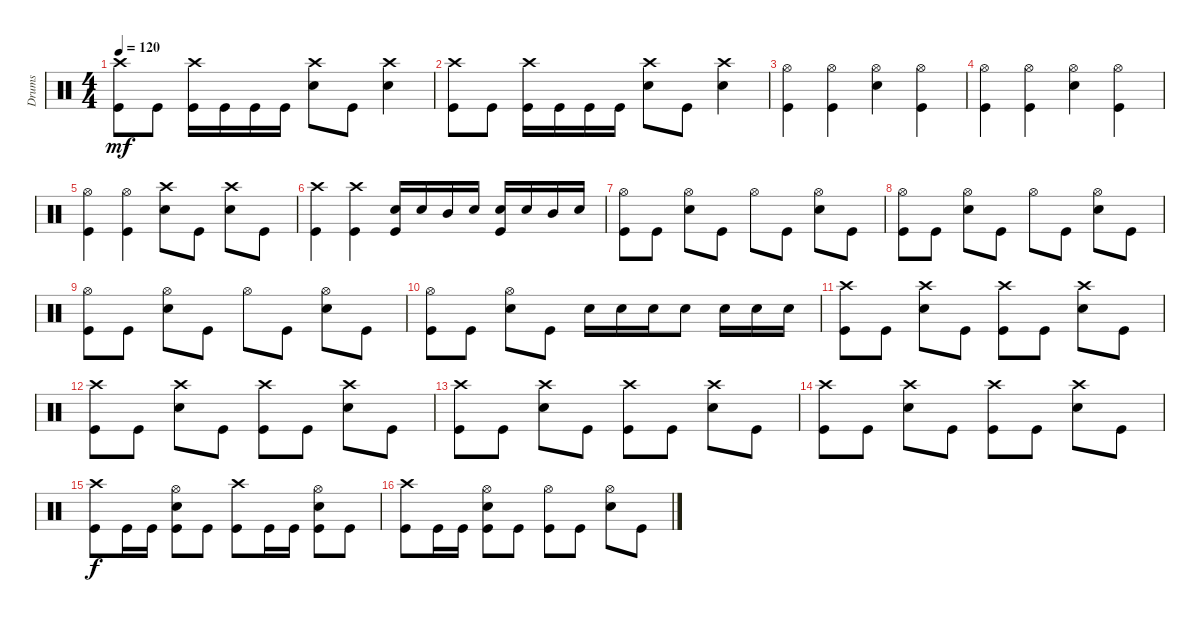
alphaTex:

\track ("Drums" "Drums") {instrument percussion}
\staff {score}
\articulation defaults
\ts (4 4)
\tempo 120
\clef neutral
\ks c
("Crash high (hit)" "Kick (hit)").8{dy mf} "Kick (hit)".8 ("Kick (hit)" "Crash high (hit)").16 "Kick (hit)".16 "Kick (hit)".16 "Kick (hit)".16 ("Snare (hit) 2" "Crash high (hit)").8 "Kick (hit)".8 ("Crash high (hit)" "Snare (hit) 2").4 |
("Crash high (hit)" "Kick (hit)").8 "Kick (hit)".8 ("Kick (hit)" "Crash high (hit)").16 "Kick (hit)".16 "Kick (hit)".16 "Kick (hit)".16 ("Snare (hit) 2" "Crash high (hit)").8 "Kick (hit)".8 ("Crash high (hit)" "Snare (hit) 2").4 |
("Kick (hit)" "Hi-Hat (open)").4 ("Kick (hit)" "Hi-Hat (open)").4 ("Hi-Hat (open)" "Snare (hit) 2").4 ("Kick (hit)" "Hi-Hat (open)").4 |
("Kick (hit)" "Hi-Hat (open)").4 ("Kick (hit)" "Hi-Hat (open)").4 ("Hi-Hat (open)" "Snare (hit) 2").4 ("Kick (hit)" "Hi-Hat (open)").4 |
("Kick (hit)" "Hi-Hat (open)").4 ("Kick (hit)" "Hi-Hat (open)").4 ("Snare (hit) 2" "Crash high (hit)").8 "Kick (hit)".8 ("Snare (hit) 2" "Crash high (hit)").8 "Kick (hit)".8 |
("Kick (hit)" "Crash high (hit)").4 ("Kick (hit)" "Crash high (hit)").4 ("Snare (hit) 2" "Kick (hit)").16 "Snare (hit) 2".16 "Mid Tom (hit)".16 "Snare (hit) 2".16 ("Snare (hit) 2" "Kick (hit)").16 "Snare (hit) 2".16 "Mid Tom (hit)".16 "Snare (hit) 2".16 |
("Kick (hit)" "Hi-Hat (open)").8 "Kick (hit)".8 ("Hi-Hat (open)" "Snare (hit) 2").8 "Kick (hit)".8 "Hi-Hat (open)".8 "Kick (hit)".8 ("Hi-Hat (open)" "Snare (hit) 2").8 "Kick (hit)".8 |
("Kick (hit)" "Hi-Hat (open)").8 "Kick (hit)".8 ("Hi-Hat (open)" "Snare (hit) 2").8 "Kick (hit)".8 "Hi-Hat (open)".8 "Kick (hit)".8 ("Hi-Hat (open)" "Snare (hit) 2").8 "Kick (hit)".8 |
("Kick (hit)" "Hi-Hat (open)").8 "Kick (hit)".8 ("Hi-Hat (open)" "Snare (hit) 2").8 "Kick (hit)".8 "Hi-Hat (open)".8 "Kick (hit)".8 ("Hi-Hat (open)" "Snare (hit) 2").8 "Kick (hit)".8 |
("Kick (hit)" "Hi-Hat (open)").8 "Kick (hit)".8 ("Hi-Hat (open)" "Snare (hit) 2").8 "Kick (hit)".8 "Snare (hit) 2".16 "Snare (hit) 2".16 "Snare (hit) 2".16 "Snare (hit) 2".8 "Snare (hit) 2".16 "Snare (hit) 2".16 "Snare (hit) 2".16 |
("Kick (hit)" "Crash high (hit)").8 "Kick (hit)".8 ("Snare (hit) 2" "Crash high (hit)").8 "Kick (hit)".8 ("Kick (hit)" "Crash high (hit)").8 "Kick (hit)".8 ("Crash high (hit)" "Snare (hit) 2").8 "Kick (hit)".8 |
("Kick (hit)" "Crash high (hit)").8 "Kick (hit)".8 ("Snare (hit) 2" "Crash high (hit)").8 "Kick (hit)".8 ("Kick (hit)" "Crash high (hit)").8 "Kick (hit)".8 ("Crash high (hit)" "Snare (hit) 2").8 "Kick (hit)".8 |
("Kick (hit)" "Crash high (hit)").8 "Kick (hit)".8 ("Snare (hit) 2" "Crash high (hit)").8 "Kick (hit)".8 ("Kick (hit)" "Crash high (hit)").8 "Kick (hit)".8 ("Crash high (hit)" "Snare (hit) 2").8 "Kick (hit)".8 |
("Kick (hit)" "Crash high (hit)").8 "Kick (hit)".8 ("Snare (hit) 2" "Crash high (hit)").8 "Kick (hit)".8 ("Kick (hit)" "Crash high (hit)").8 "Kick (hit)".8 ("Crash high (hit)" "Snare (hit) 2").8 "Kick (hit)".8 |
("Kick (hit)" "Crash high (hit)").8{dy f} "Kick (hit)".16 "Kick (hit)".16 ("Kick (hit)" "Snare (hit) 2" "Hi-Hat (open)").8 "Kick (hit)".8 ("Kick (hit)" "Crash high (hit)").8 "Kick (hit)".16 "Kick (hit)".16 ("Kick (hit)" "Snare (hit) 2" "Hi-Hat (open)").8 "Kick (hit)".8 |
("Kick (hit)" "Crash high (hit)").8 "Kick (hit)".16 "Kick (hit)".16 ("Kick (hit)" "Snare (hit) 2" "Hi-Hat (open)").8 "Kick (hit)".8 ("Kick (hit)" "Hi-Hat (open)").8 "Kick (hit)".8 ("Snare (hit) 2" "Hi-Hat (open)").8 "Kick (hit)".8
